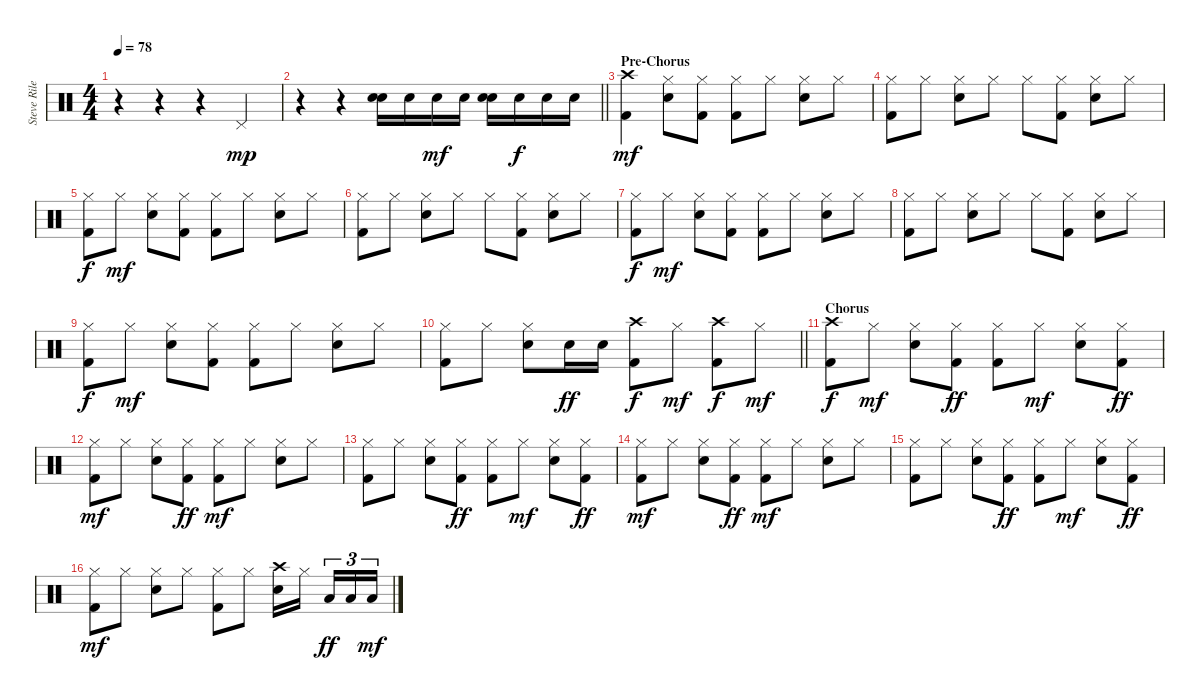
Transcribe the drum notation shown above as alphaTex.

\track ("Steve Riley" "Steve Rile") {instrument percussion}
\staff {score}
\articulation defaults
\ts (4 4)
\tempo 78
\clef neutral
\ks c
r.4{dy mp} r.4 r.4 "Pedal Hi-Hat (hit)".4 |
\barLineRight lightlight
r.4 r.4 ("Electric Snare (hit)" "Electric Snare (hit)").16{bd 60} "Electric Snare (hit)".16 "Electric Snare (hit)".16{dy mf} "Electric Snare (hit)".16 ("Electric Snare (hit)" "Electric Snare (hit)").16{bd 60} "Electric Snare (hit)".16{dy f} "Electric Snare (hit)".16 "Electric Snare (hit)".16 |
\section ("" "Pre-Chorus")
("Crash high (hit)" "Kick (hit) 2").4{dy mf} ("Hi-Hat (closed)" "Electric Snare (hit)").8 ("Hi-Hat (closed)" "Kick (hit) 2").8 ("Hi-Hat (closed)" "Kick (hit) 2").8 "Hi-Hat (closed)".8 ("Hi-Hat (closed)" "Electric Snare (hit)").8 "Hi-Hat (closed)".8 |
("Hi-Hat (closed)" "Kick (hit) 2").8 "Hi-Hat (closed)".8 ("Hi-Hat (closed)" "Electric Snare (hit)").8 "Hi-Hat (closed)".8 "Hi-Hat (closed)".8 ("Hi-Hat (closed)" "Kick (hit) 2").8 ("Hi-Hat (closed)" "Electric Snare (hit)").8 "Hi-Hat (closed)".8 |
("Hi-Hat (closed)" "Kick (hit) 2").8{dy f} "Hi-Hat (closed)".8{dy mf} ("Hi-Hat (closed)" "Electric Snare (hit)").8 ("Hi-Hat (closed)" "Kick (hit) 2").8 ("Hi-Hat (closed)" "Kick (hit) 2").8 "Hi-Hat (closed)".8 ("Hi-Hat (closed)" "Electric Snare (hit)").8 "Hi-Hat (closed)".8 |
("Hi-Hat (closed)" "Kick (hit) 2").8 "Hi-Hat (closed)".8 ("Hi-Hat (closed)" "Electric Snare (hit)").8 "Hi-Hat (closed)".8 "Hi-Hat (closed)".8 ("Hi-Hat (closed)" "Kick (hit) 2").8 ("Hi-Hat (closed)" "Electric Snare (hit)").8 "Hi-Hat (closed)".8 |
("Hi-Hat (closed)" "Kick (hit) 2").8{dy f} "Hi-Hat (closed)".8{dy mf} ("Hi-Hat (closed)" "Electric Snare (hit)").8 ("Hi-Hat (closed)" "Kick (hit) 2").8 ("Hi-Hat (closed)" "Kick (hit) 2").8 "Hi-Hat (closed)".8 ("Hi-Hat (closed)" "Electric Snare (hit)").8 "Hi-Hat (closed)".8 |
("Hi-Hat (closed)" "Kick (hit) 2").8 "Hi-Hat (closed)".8 ("Hi-Hat (closed)" "Electric Snare (hit)").8 "Hi-Hat (closed)".8 "Hi-Hat (closed)".8 ("Hi-Hat (closed)" "Kick (hit) 2").8 ("Hi-Hat (closed)" "Electric Snare (hit)").8 "Hi-Hat (closed)".8 |
("Hi-Hat (closed)" "Kick (hit) 2").8{dy f} "Hi-Hat (closed)".8{dy mf} ("Hi-Hat (closed)" "Electric Snare (hit)").8 ("Hi-Hat (closed)" "Kick (hit) 2").8 ("Hi-Hat (closed)" "Kick (hit) 2").8 "Hi-Hat (closed)".8 ("Hi-Hat (closed)" "Electric Snare (hit)").8 "Hi-Hat (closed)".8 |
\barLineRight lightlight
("Hi-Hat (closed)" "Kick (hit) 2").8 "Hi-Hat (closed)".8 ("Hi-Hat (closed)" "Electric Snare (hit)").8 "Electric Snare (hit)".16{dy ff} "Electric Snare (hit)".16 ("Crash high (hit)" "Kick (hit) 2").8{dy f} "Hi-Hat (closed)".8{dy mf} ("Crash high (hit)" "Kick (hit) 2").8{dy f} "Hi-Hat (closed)".8{dy mf} |
\section ("" "Chorus")
("Crash high (hit)" "Kick (hit) 2").8{dy f} "Hi-Hat (closed)".8{dy mf} ("Hi-Hat (closed)" "Electric Snare (hit)").8 ("Hi-Hat (closed)" "Kick (hit) 2").8{dy ff} ("Hi-Hat (closed)" "Kick (hit) 2").8 "Hi-Hat (closed)".8{dy mf} ("Hi-Hat (closed)" "Electric Snare (hit)").8 ("Hi-Hat (closed)" "Kick (hit) 2").8{dy ff} |
("Hi-Hat (closed)" "Kick (hit) 2").8{dy mf} "Hi-Hat (closed)".8 ("Hi-Hat (closed)" "Electric Snare (hit)").8 ("Hi-Hat (closed)" "Kick (hit) 2").8{dy ff} ("Hi-Hat (closed)" "Kick (hit) 2").8{dy mf} "Hi-Hat (closed)".8 ("Hi-Hat (closed)" "Electric Snare (hit)").8 "Hi-Hat (closed)".8 |
("Hi-Hat (closed)" "Kick (hit) 2").8 "Hi-Hat (closed)".8 ("Hi-Hat (closed)" "Electric Snare (hit)").8 ("Hi-Hat (closed)" "Kick (hit) 2").8{dy ff} ("Hi-Hat (closed)" "Kick (hit) 2").8 "Hi-Hat (closed)".8{dy mf} ("Hi-Hat (closed)" "Electric Snare (hit)").8 ("Hi-Hat (closed)" "Kick (hit) 2").8{dy ff} |
("Hi-Hat (closed)" "Kick (hit) 2").8{dy mf} "Hi-Hat (closed)".8 ("Hi-Hat (closed)" "Electric Snare (hit)").8 ("Hi-Hat (closed)" "Kick (hit) 2").8{dy ff} ("Hi-Hat (closed)" "Kick (hit) 2").8{dy mf} "Hi-Hat (closed)".8 ("Hi-Hat (closed)" "Electric Snare (hit)").8 "Hi-Hat (closed)".8 |
("Hi-Hat (closed)" "Kick (hit) 2").8 "Hi-Hat (closed)".8 ("Hi-Hat (closed)" "Electric Snare (hit)").8 ("Hi-Hat (closed)" "Kick (hit) 2").8{dy ff} ("Hi-Hat (closed)" "Kick (hit) 2").8 "Hi-Hat (closed)".8{dy mf} ("Hi-Hat (closed)" "Electric Snare (hit)").8 ("Hi-Hat (closed)" "Kick (hit) 2").8{dy ff} |
("Hi-Hat (closed)" "Kick (hit) 2").8{dy mf} "Hi-Hat (closed)".8 ("Hi-Hat (closed)" "Electric Snare (hit)").8 "Hi-Hat (closed)".8 ("Hi-Hat (closed)" "Kick (hit) 2").8 "Hi-Hat (closed)".8 ("Crash high (hit)" "Electric Snare (hit)").16 "Hi-Hat (closed)".16{beam splitsecondary} "Low Tom (hit)".16{tu (3 2) dy ff} "Low Tom (hit)".16{tu (3 2)} "Low Tom (hit)".16{tu (3 2) dy mf}
